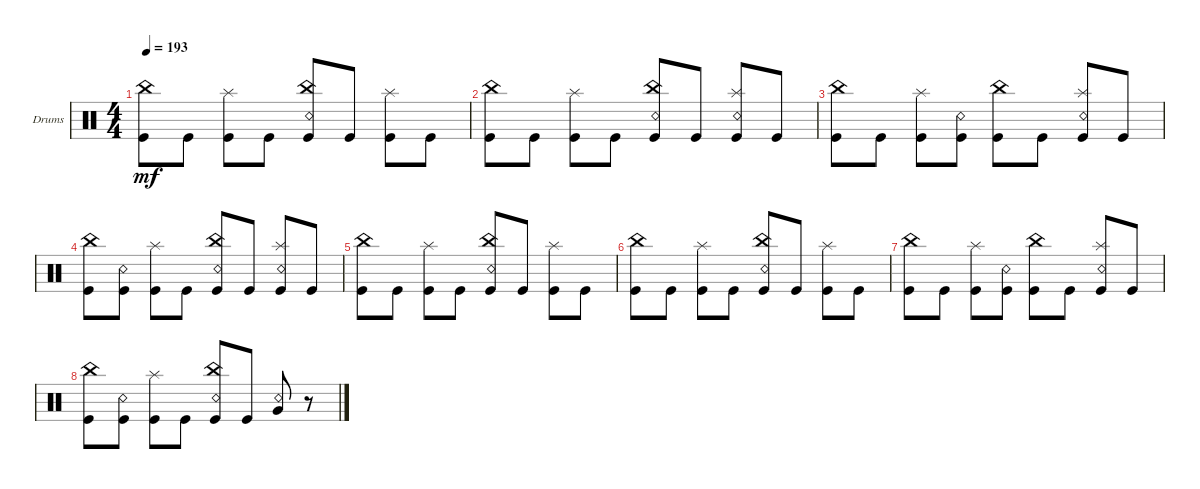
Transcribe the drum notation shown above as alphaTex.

\defaultSystemsLayout 4
\bracketExtendMode groupsimilarinstruments
\firstSystemTrackNameOrientation horizontal
\otherSystemsTrackNameOrientation horizontal
\track ("Drumkit" "Drums") {mute multiBarRest instrument percussion}
\staff {score}
\articulation defaults
\ts (4 4)
\tempo 193
\clef neutral
\scale
0.333333
\ks c
("Kick (hit)" "China (hit)").8{dy mf} "Kick (hit)".8 ("Kick (hit)" "Splash (hit)").8 "Kick (hit)".8 ("Kick (hit)" "China (hit)" "Snare (rim shot)").8 "Kick (hit)".8 ("Kick (hit)" "Splash (hit)").8 "Kick (hit)".8 |
\scale
0.333333 ("Kick (hit)" "China (hit)").8 "Kick (hit)".8 ("Kick (hit)" "Splash (hit)").8 "Kick (hit)".8 ("Kick (hit)" "Snare (rim shot)" "China (hit)").8 "Kick (hit)".8 ("Kick (hit)" "Snare (rim shot)" "Splash (hit)").8 "Kick (hit)".8 |
\scale
0.333333 ("Kick (hit)" "China (hit)").8 "Kick (hit)".8 ("Kick (hit)" "Splash (hit)").8 ("Kick (hit)" "Snare (rim shot)").8 ("Kick (hit)" "China (hit)").8 "Kick (hit)".8 ("Kick (hit)" "Snare (rim shot)" "Splash (hit)").8 "Kick (hit)".8 |
\scale
0.333333 ("Kick (hit)" "China (hit)").8 ("Snare (rim shot)" "Kick (hit)").8 ("Kick (hit)" "Splash (hit)").8 "Kick (hit)".8 ("Kick (hit)" "Snare (rim shot)" "China (hit)").8 "Kick (hit)".8 ("Kick (hit)" "Snare (rim shot)" "Splash (hit)").8 "Kick (hit)".8 |
\scale
0.333333 ("Kick (hit)" "China (hit)").8 "Kick (hit)".8 ("Kick (hit)" "Splash (hit)").8 "Kick (hit)".8 ("Kick (hit)" "China (hit)" "Snare (rim shot)").8 "Kick (hit)".8 ("Kick (hit)" "Splash (hit)").8 "Kick (hit)".8 |
\scale
0.333333 ("Kick (hit)" "China (hit)").8 "Kick (hit)".8 ("Kick (hit)" "Splash (hit)").8 "Kick (hit)".8 ("Kick (hit)" "Snare (rim shot)" "China (hit)").8 "Kick (hit)".8 ("Kick (hit)" "Splash (hit)").8 "Kick (hit)".8 |
\scale
0.333333 ("Kick (hit)" "China (hit)").8 "Kick (hit)".8 ("Kick (hit)" "Splash (hit)").8 ("Kick (hit)" "Snare (rim shot)").8 ("Kick (hit)" "China (hit)").8 "Kick (hit)".8 ("Kick (hit)" "Snare (rim shot)" "Splash (hit)").8 "Kick (hit)".8 |
\scale
0.333333 ("Kick (hit)" "China (hit)").8 ("Snare (rim shot)" "Kick (hit)").8 ("Kick (hit)" "Splash (hit)").8 "Kick (hit)".8 ("Kick (hit)" "Snare (rim shot)" "China (hit)").8 "Kick (hit)".8 ("Snare (rim shot)" "Very Low Tom (hit)").8 r.8
